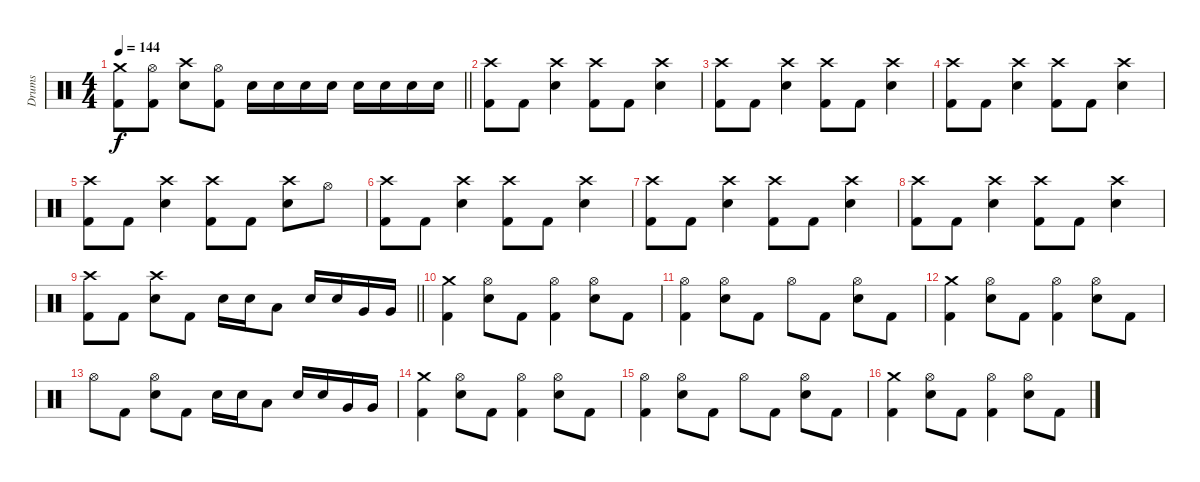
\track ("Drums" "Drums") {instrument percussion}
\staff {score}
\articulation defaults
\ts (4 4)
\tempo 144
\clef neutral
\barLineRight lightlight
\ks c
("Crash medium (hit)" "Kick (hit) 2").8{dy f} ("Hi-Hat (open)" "Kick (hit) 2").8 ("Crash high (hit)" "Electric Snare (hit)").8 ("Hi-Hat (open)" "Kick (hit) 2").8 "Electric Snare (hit)".16 "Electric Snare (hit)".16 "Electric Snare (hit)".16 "Electric Snare (hit)".16 "Electric Snare (hit)".16 "Electric Snare (hit)".16 "Electric Snare (hit)".16 "Electric Snare (hit)".16 |
("Crash high (hit)" "Kick (hit) 2").8 "Kick (hit) 2".8 ("Crash high (hit)" "Electric Snare (hit)").4 ("Crash high (hit)" "Kick (hit) 2").8 "Kick (hit) 2".8 ("Crash high (hit)" "Electric Snare (hit)").4 |
("Crash high (hit)" "Kick (hit) 2").8 "Kick (hit) 2".8 ("Crash high (hit)" "Electric Snare (hit)").4 ("Crash high (hit)" "Kick (hit) 2").8 "Kick (hit) 2".8 ("Crash high (hit)" "Electric Snare (hit)").4 |
("Crash high (hit)" "Kick (hit) 2").8 "Kick (hit) 2".8 ("Crash high (hit)" "Electric Snare (hit)").4 ("Crash high (hit)" "Kick (hit) 2").8 "Kick (hit) 2".8 ("Crash high (hit)" "Electric Snare (hit)").4 |
("Crash high (hit)" "Kick (hit) 2").8 "Kick (hit) 2".8 ("Crash high (hit)" "Electric Snare (hit)").4 ("Crash high (hit)" "Kick (hit) 2").8 "Kick (hit) 2".8 ("Crash high (hit)" "Electric Snare (hit)").8 "Hi-Hat (open)".8 |
("Crash high (hit)" "Kick (hit) 2").8 "Kick (hit) 2".8 ("Crash high (hit)" "Electric Snare (hit)").4 ("Crash high (hit)" "Kick (hit) 2").8 "Kick (hit) 2".8 ("Crash high (hit)" "Electric Snare (hit)").4 |
("Crash high (hit)" "Kick (hit) 2").8 "Kick (hit) 2".8 ("Crash high (hit)" "Electric Snare (hit)").4 ("Crash high (hit)" "Kick (hit) 2").8 "Kick (hit) 2".8 ("Crash high (hit)" "Electric Snare (hit)").4 |
("Crash high (hit)" "Kick (hit) 2").8 "Kick (hit) 2".8 ("Crash high (hit)" "Electric Snare (hit)").4 ("Crash high (hit)" "Kick (hit) 2").8 "Kick (hit) 2".8 ("Crash high (hit)" "Electric Snare (hit)").4 |
\barLineRight lightlight
("Crash high (hit)" "Kick (hit) 2").8 "Kick (hit) 2".8 ("Crash high (hit)" "Electric Snare (hit)").8 "Kick (hit) 2".8 "Electric Snare (hit)".16 "Electric Snare (hit)".16 "Low Tom (hit)".8 "Electric Snare (hit)".16 "Electric Snare (hit)".16 "Very Low Tom (hit)".16 "Very Low Tom (hit)".16 |
("Crash medium (hit)" "Kick (hit) 2").4 ("Hi-Hat (open)" "Electric Snare (hit)").8 "Kick (hit) 2".8 ("Hi-Hat (open)" "Kick (hit) 2").4 ("Hi-Hat (open)" "Electric Snare (hit)").8 "Kick (hit) 2".8 |
("Hi-Hat (open)" "Kick (hit) 2").4 ("Hi-Hat (open)" "Electric Snare (hit)").8 "Kick (hit) 2".8 "Hi-Hat (open)".8 "Kick (hit) 2".8 ("Hi-Hat (open)" "Electric Snare (hit)").8 "Kick (hit) 2".8 |
("Crash medium (hit)" "Kick (hit) 2").4 ("Hi-Hat (open)" "Electric Snare (hit)").8 "Kick (hit) 2".8 ("Hi-Hat (open)" "Kick (hit) 2").4 ("Hi-Hat (open)" "Electric Snare (hit)").8 "Kick (hit) 2".8 |
"Hi-Hat (open)".8 "Kick (hit) 2".8 ("Hi-Hat (open)" "Electric Snare (hit)").8 "Kick (hit) 2".8 "Electric Snare (hit)".16 "Electric Snare (hit)".16 "Low Tom (hit)".8 "Electric Snare (hit)".16 "Electric Snare (hit)".16 "Very Low Tom (hit)".16 "Very Low Tom (hit)".16 |
("Crash medium (hit)" "Kick (hit) 2").4 ("Hi-Hat (open)" "Electric Snare (hit)").8 "Kick (hit) 2".8 ("Hi-Hat (open)" "Kick (hit) 2").4 ("Hi-Hat (open)" "Electric Snare (hit)").8 "Kick (hit) 2".8 |
("Hi-Hat (open)" "Kick (hit) 2").4 ("Hi-Hat (open)" "Electric Snare (hit)").8 "Kick (hit) 2".8 "Hi-Hat (open)".8 "Kick (hit) 2".8 ("Hi-Hat (open)" "Electric Snare (hit)").8 "Kick (hit) 2".8 |
("Crash medium (hit)" "Kick (hit) 2").4 ("Hi-Hat (open)" "Electric Snare (hit)").8 "Kick (hit) 2".8 ("Hi-Hat (open)" "Kick (hit) 2").4 ("Hi-Hat (open)" "Electric Snare (hit)").8 "Kick (hit) 2".8
